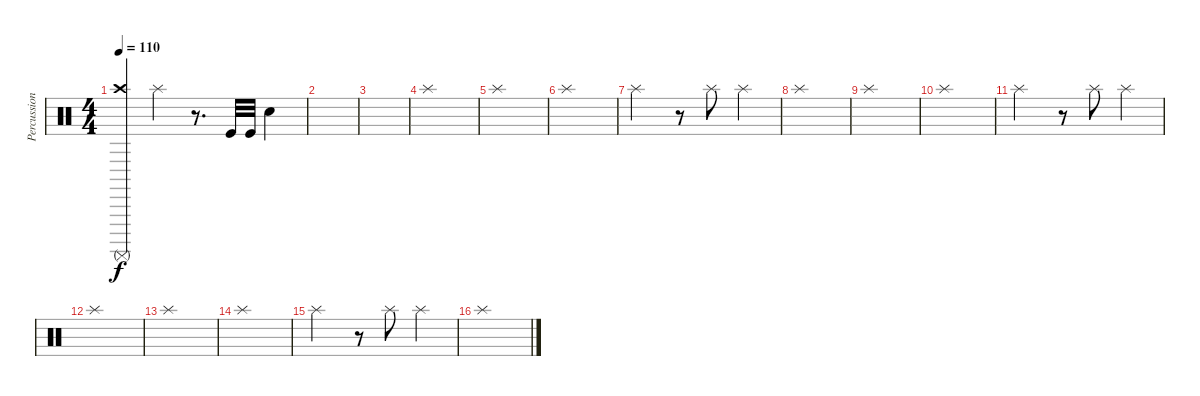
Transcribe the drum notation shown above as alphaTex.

\track ("Percussions" "Percussion") {instrument percussion}
\staff {score}
\articulation defaults
\ts (4 4)
\tempo 110
\clef neutral
\ks c
("Crash high (hit)" "Surdo (mute)").4{dy f} "Splash (hit)".4 r.8{d} "Kick (hit)".32 "Kick (hit)".32 "Snare (hit) 2".4 |
|
|
"Splash (hit)".1 |
"Splash (hit)".1 |
"Splash (hit)".1 |
"Splash (hit)".2 r.8 "Splash (hit)".8 "Splash (hit)".4 |
"Splash (hit)".1 |
"Splash (hit)".1 |
"Splash (hit)".1 |
"Splash (hit)".2 r.8 "Splash (hit)".8 "Splash (hit)".4 |
"Splash (hit)".1 |
"Splash (hit)".1 |
"Splash (hit)".1 |
"Splash (hit)".2 r.8 "Splash (hit)".8 "Splash (hit)".4 |
"Splash (hit)".1
